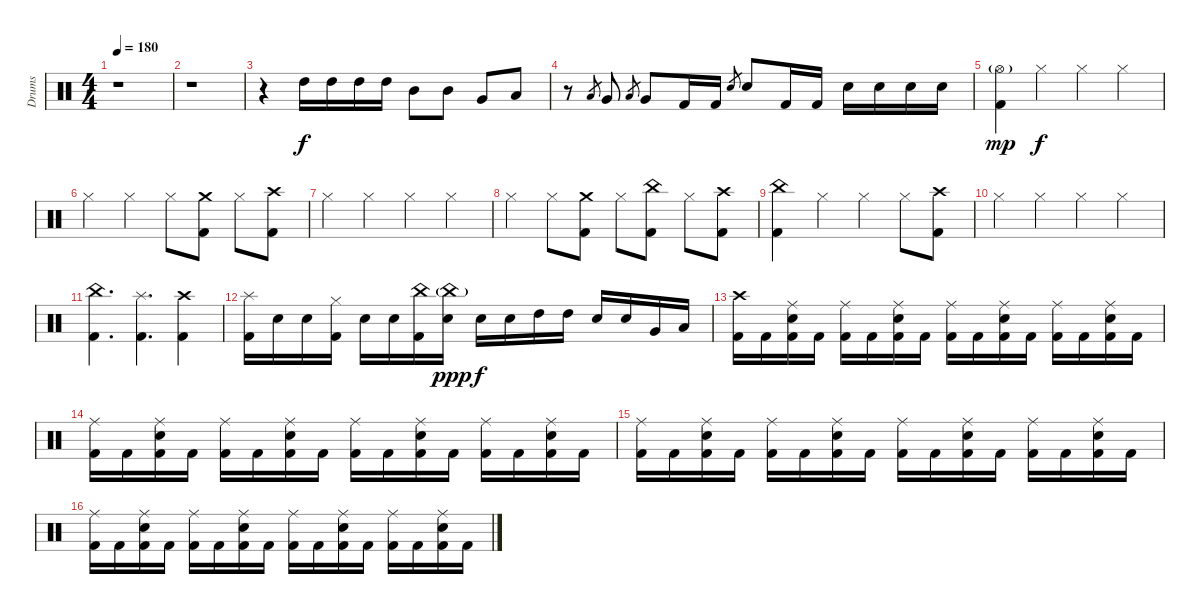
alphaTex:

\track ("Drums" "Drums") {instrument percussion}
\staff {score}
\articulation defaults
\ts (4 4)
\tempo 180
\clef neutral
\ks c
r.1{dy f} |
r.1 |
r.4{balance 0} "High Tom (hit)".16{balance 16} "High Tom (hit)".16 "High Tom (hit)".16 "High Tom (hit)".16 "Mid Tom (hit)".8 "Mid Tom (hit)".8 "Very Low Tom (hit)".8 "Low Floor Tom (hit)".8 |
r.8 "Low Floor Tom (hit)".8{gr} "Very Low Tom (hit)".8 "Low Floor Tom (hit)".8{gr} "Very Low Tom (hit)".8 "Kick (hit) 2".16 "Kick (hit) 2".16 "Electric Snare (hit)".8{gr} "Electric Snare (hit)".8 "Kick (hit) 2".16 "Kick (hit) 2".16 "Electric Snare (hit)".16 "Electric Snare (hit)".16 "Electric Snare (hit)".16 "Electric Snare (hit)".16 |
("Hi-Hat (open)"{g} "Kick (hit) 2").4{dy mp balance 8} "Hi-Hat (closed)".4{dy f} "Hi-Hat (closed)".4 "Hi-Hat (closed)".4 |
"Hi-Hat (closed)".4 "Hi-Hat (closed)".4 "Hi-Hat (closed)".8 ("Crash medium (hit)" "Kick (hit) 2").8 "Hi-Hat (closed)".8 ("Crash high (hit)" "Kick (hit) 2").8 |
"Hi-Hat (closed)".4 "Hi-Hat (closed)".4 "Hi-Hat (closed)".4 "Hi-Hat (closed)".4 |
"Hi-Hat (closed)".4 "Hi-Hat (closed)".8 ("Crash medium (hit)" "Kick (hit) 2").8 "Hi-Hat (closed)".8 ("China (hit)" "Kick (hit) 2").8 "Hi-Hat (closed)".8 ("Crash high (hit)" "Kick (hit) 2").8 |
("China (hit)" "Kick (hit) 2").4 "Hi-Hat (closed)".4 "Hi-Hat (closed)".4 "Hi-Hat (closed)".8 ("Crash high (hit)" "Kick (hit) 2").8 |
"Hi-Hat (closed)".4 "Hi-Hat (closed)".4 "Hi-Hat (closed)".4 "Hi-Hat (closed)".4 |
("China (hit)" "Kick (hit) 2").4{d} ("Splash (hit)" "Kick (hit) 2").4{d} ("Crash high (hit)" "Kick (hit) 2").4 |
("Splash (hit)" "Kick (hit) 2").16 "Electric Snare (hit)".16 "Electric Snare (hit)".16 ("Hi-Hat (closed)" "Kick (hit) 2").16 "Electric Snare (hit)".16 "Electric Snare (hit)".16 ("China (hit)" "Kick (hit) 2").16 ("China (hit)"{g} "Electric Snare (hit)").16{dy ppp} "Electric Snare (hit)".16{dy f} "Electric Snare (hit)".16 "High Tom (hit)".16 "High Tom (hit)".16 "Electric Snare (hit)".16 "Electric Snare (hit)".16 "Very Low Tom (hit)".16 "Low Floor Tom (hit)".16 |
("Crash high (hit)" "Kick (hit) 2").16 "Kick (hit) 2".16 ("Ride (middle)" "Electric Snare (hit)" "Kick (hit) 2").16 "Kick (hit) 2".16 ("Ride (middle)" "Kick (hit) 2").16 "Kick (hit) 2".16 ("Ride (middle)" "Electric Snare (hit)" "Kick (hit) 2").16 "Kick (hit) 2".16 ("Ride (middle)" "Kick (hit) 2").16 "Kick (hit) 2".16 ("Ride (middle)" "Electric Snare (hit)" "Kick (hit) 2").16 "Kick (hit) 2".16 ("Ride (middle)" "Kick (hit) 2").16 "Kick (hit) 2".16 ("Ride (middle)" "Electric Snare (hit)" "Kick (hit) 2").16 "Kick (hit) 2".16 |
("Ride (middle)" "Kick (hit) 2").16 "Kick (hit) 2".16 ("Ride (middle)" "Electric Snare (hit)" "Kick (hit) 2").16 "Kick (hit) 2".16 ("Ride (middle)" "Kick (hit) 2").16 "Kick (hit) 2".16 ("Ride (middle)" "Electric Snare (hit)" "Kick (hit) 2").16 "Kick (hit) 2".16 ("Ride (middle)" "Kick (hit) 2").16 "Kick (hit) 2".16 ("Ride (middle)" "Electric Snare (hit)" "Kick (hit) 2").16 "Kick (hit) 2".16 ("Ride (middle)" "Kick (hit) 2").16 "Kick (hit) 2".16 ("Ride (middle)" "Electric Snare (hit)" "Kick (hit) 2").16 "Kick (hit) 2".16 |
("Ride (middle)" "Kick (hit) 2").16 "Kick (hit) 2".16 ("Ride (middle)" "Electric Snare (hit)" "Kick (hit) 2").16 "Kick (hit) 2".16 ("Ride (middle)" "Kick (hit) 2").16 "Kick (hit) 2".16 ("Ride (middle)" "Electric Snare (hit)" "Kick (hit) 2").16 "Kick (hit) 2".16 ("Ride (middle)" "Kick (hit) 2").16 "Kick (hit) 2".16 ("Ride (middle)" "Electric Snare (hit)" "Kick (hit) 2").16 "Kick (hit) 2".16 ("Ride (middle)" "Kick (hit) 2").16 "Kick (hit) 2".16 ("Ride (middle)" "Electric Snare (hit)" "Kick (hit) 2").16 "Kick (hit) 2".16 |
("Ride (middle)" "Kick (hit) 2").16 "Kick (hit) 2".16 ("Ride (middle)" "Electric Snare (hit)" "Kick (hit) 2").16 "Kick (hit) 2".16 ("Ride (middle)" "Kick (hit) 2").16 "Kick (hit) 2".16 ("Ride (middle)" "Electric Snare (hit)" "Kick (hit) 2").16 "Kick (hit) 2".16 ("Ride (middle)" "Kick (hit) 2").16 "Kick (hit) 2".16 ("Ride (middle)" "Electric Snare (hit)" "Kick (hit) 2").16 "Kick (hit) 2".16 ("Ride (middle)" "Kick (hit) 2").16 "Kick (hit) 2".16 ("Ride (middle)" "Electric Snare (hit)" "Kick (hit) 2").16 "Kick (hit) 2".16
